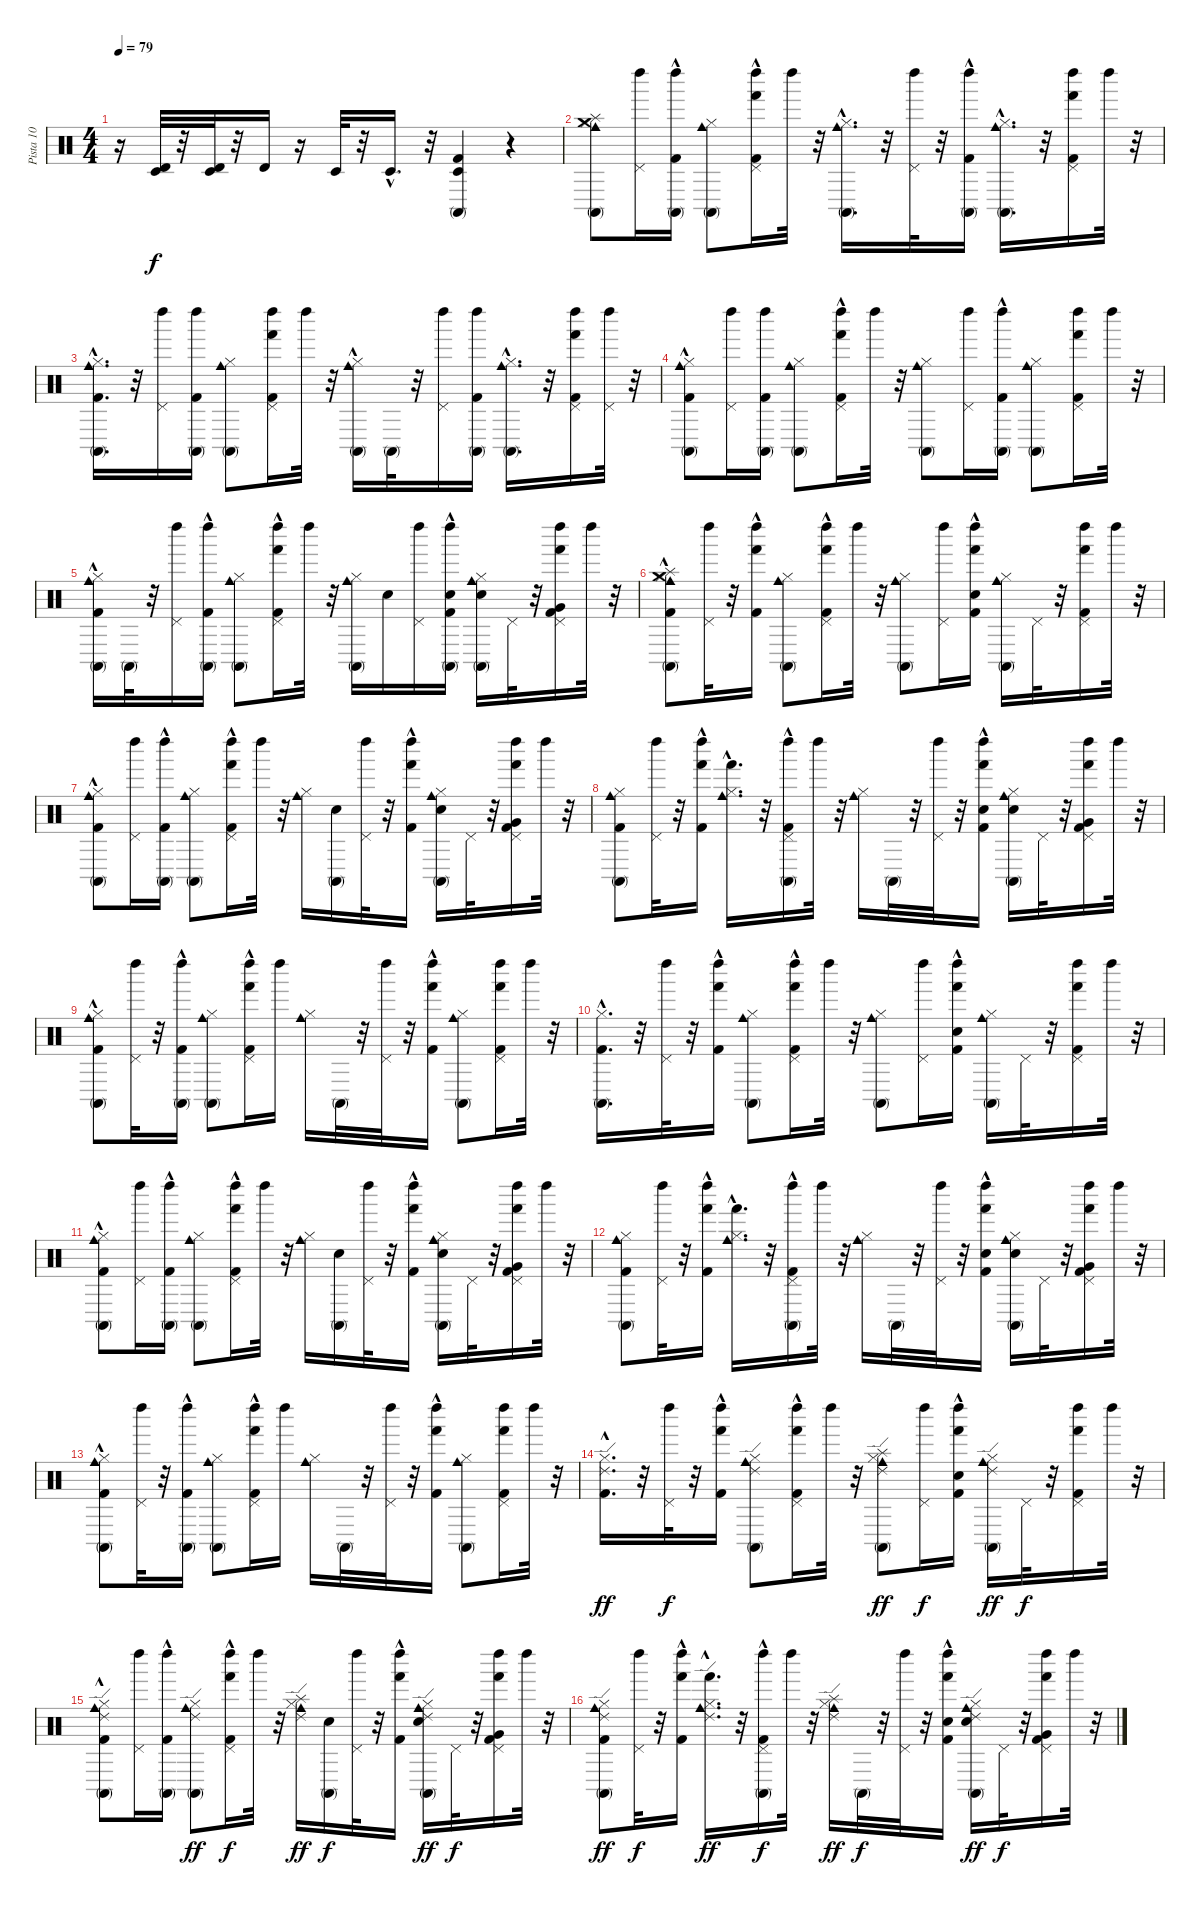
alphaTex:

\track ("Pista 10" "Pista 10") {instrument percussion}
\staff {score}
\articulation defaults
\ts (4 4)
\tempo 79
\clef neutral
\ks c
r.16{dy f} ("Timbale high (hit)" "Timbale low (hit)").32 r.32 ("Timbale high (hit)" "Timbale low (hit)").32 r.32 "Timbale high (hit)".16 r.16 "Timbale low (hit)".32 r.32 "Timbale low (hit)"{hac}.16{d} r.32 ("Kick (hit) 2" "Conga high (mute)" "Timbale low (hit)").4 r.4 |
("Hi-Hat (closed)" "Crash medium (hit)" "Splash (hit)" "Conga high (mute)" "Cowbell medium (hit)").8 ("Pedal Hi-Hat (hit)" "Left Maraca (hit)").16 ("Conga high (mute)" "Left Maraca (hit)" "Kick (hit) 2"{hac}).16 ("Hi-Hat (closed)" "Conga high (mute)" "Cowbell medium (hit)").8 ("Pedal Hi-Hat (hit)" "Hand (hit)" "Left Maraca (hit)" "Kick (hit) 2"{hac}).16 "Left Maraca (hit)".32 r.32 ("Hi-Hat (closed)" "Conga high (mute)" "Cowbell medium (hit)"{hac}).16{d} r.32 ("Pedal Hi-Hat (hit)" "Left Maraca (hit)").32 r.32 ("Conga high (mute)" "Left Maraca (hit)" "Kick (hit) 2"{hac}).16 ("Hi-Hat (closed)" "Conga high (mute)" "Cowbell medium (hit)"{hac}).16{d} r.32 ("Pedal Hi-Hat (hit)" "Hand (hit)" "Left Maraca (hit)" "Kick (hit) 2").16 "Left Maraca (hit)".32 r.32 |
("Hi-Hat (closed)" "Conga high (mute)" "Cowbell medium (hit)"{hac} "Kick (hit) 2"{hac}).16{d} r.32 ("Pedal Hi-Hat (hit)" "Left Maraca (hit)").16 ("Conga high (mute)" "Left Maraca (hit)" "Kick (hit) 2").16 ("Hi-Hat (closed)" "Conga high (mute)" "Cowbell medium (hit)").8 ("Pedal Hi-Hat (hit)" "Hand (hit)" "Left Maraca (hit)" "Kick (hit) 2").16 "Left Maraca (hit)".32 r.32 ("Hi-Hat (closed)" "Conga high (mute)" "Cowbell medium (hit)"{hac}).16 "Conga high (mute)".32 r.32 ("Pedal Hi-Hat (hit)" "Left Maraca (hit)").16 ("Conga high (mute)" "Left Maraca (hit)" "Kick (hit) 2").16 ("Hi-Hat (closed)" "Conga high (mute)" "Cowbell medium (hit)"{hac}).16{d} r.32 ("Pedal Hi-Hat (hit)" "Hand (hit)" "Left Maraca (hit)" "Kick (hit) 2").16 ("Pedal Hi-Hat (hit)" "Left Maraca (hit)").32 r.32 |
("Hi-Hat (closed)" "Conga high (mute)" "Cowbell medium (hit)" "Kick (hit) 2"{hac}).8 ("Pedal Hi-Hat (hit)" "Left Maraca (hit)").16 ("Conga high (mute)" "Left Maraca (hit)" "Kick (hit) 2").16 ("Hi-Hat (closed)" "Conga high (mute)" "Cowbell medium (hit)").8 ("Pedal Hi-Hat (hit)" "Hand (hit)" "Left Maraca (hit)" "Kick (hit) 2"{hac}).16 "Left Maraca (hit)".32 r.32 ("Hi-Hat (closed)" "Conga high (mute)" "Cowbell medium (hit)").8 ("Pedal Hi-Hat (hit)" "Left Maraca (hit)").16 ("Conga high (mute)" "Left Maraca (hit)" "Kick (hit) 2"{hac}).16 ("Hi-Hat (closed)" "Conga high (mute)" "Cowbell medium (hit)").8 ("Pedal Hi-Hat (hit)" "Hand (hit)" "Left Maraca (hit)" "Kick (hit) 2").16 "Left Maraca (hit)".32 r.32 |
("Hi-Hat (closed)" "Conga high (mute)" "Cowbell medium (hit)" "Kick (hit) 2"{hac}).16 "Conga high (mute)".32 r.32 ("Pedal Hi-Hat (hit)" "Left Maraca (hit)").16 ("Conga high (mute)" "Left Maraca (hit)" "Kick (hit) 2"{hac}).16 ("Hi-Hat (closed)" "Conga high (mute)" "Cowbell medium (hit)").8 ("Pedal Hi-Hat (hit)" "Hand (hit)" "Left Maraca (hit)" "Kick (hit) 2"{hac}).16 "Left Maraca (hit)".32 r.32 ("Hi-Hat (closed)" "Conga high (mute)" "Cowbell medium (hit)").16 "Snare (hit) 2".16 ("Pedal Hi-Hat (hit)" "Left Maraca (hit)").16 ("Snare (hit) 2" "Conga high (mute)" "Left Maraca (hit)" "Kick (hit) 2"{hac}).16 ("Hi-Hat (closed)" "Snare (hit) 2" "Conga high (mute)" "Cowbell medium (hit)").16 "Pedal Hi-Hat (hit)".32 r.32 ("Pedal Hi-Hat (hit)" "Very Low Tom (hit)" "Hand (hit)" "Left Maraca (hit)" "Kick (hit) 2").16 "Left Maraca (hit)".32 r.32 |
("Splash (hit)" "Hi-Hat (closed)"{hac} "Conga high (mute)" "Cowbell medium (hit)" "Kick (hit) 2"{hac} "Crash medium (hit)").8 ("Pedal Hi-Hat (hit)" "Left Maraca (hit)").32 r.32 ("Hand (hit)" "Left Maraca (hit)" "Kick (hit) 2"{hac}).16 ("Hi-Hat (closed)" "Conga high (mute)" "Cowbell medium (hit)").8 ("Pedal Hi-Hat (hit)" "Hand (hit)" "Left Maraca (hit)" "Kick (hit) 2"{hac}).16 "Left Maraca (hit)".32 r.32 ("Hi-Hat (closed)" "Conga high (mute)" "Cowbell medium (hit)").8 ("Pedal Hi-Hat (hit)" "Left Maraca (hit)").16 ("Snare (hit) 2" "Hand (hit)" "Left Maraca (hit)" "Kick (hit) 2"{hac}).16 ("Hi-Hat (closed)" "Conga high (mute)" "Cowbell medium (hit)").16 "Pedal Hi-Hat (hit)".32 r.32 ("Pedal Hi-Hat (hit)" "Hand (hit)" "Left Maraca (hit)" "Kick (hit) 2").16 "Left Maraca (hit)".32 r.32 |
("Hi-Hat (closed)" "Conga high (mute)" "Cowbell medium (hit)" "Kick (hit) 2"{hac}).8 ("Pedal Hi-Hat (hit)" "Left Maraca (hit)").16 ("Conga high (mute)" "Left Maraca (hit)" "Kick (hit) 2"{hac}).16 ("Hi-Hat (closed)" "Conga high (mute)" "Cowbell medium (hit)").8 ("Pedal Hi-Hat (hit)" "Hand (hit)" "Left Maraca (hit)" "Kick (hit) 2"{hac}).16 "Left Maraca (hit)".32 r.32 ("Hi-Hat (closed)" "Cowbell medium (hit)").16 ("Snare (hit) 2" "Conga high (mute)").16 ("Pedal Hi-Hat (hit)" "Left Maraca (hit)").32 r.32 ("Hand (hit)" "Left Maraca (hit)" "Kick (hit) 2"{hac}).16 ("Hi-Hat (closed)" "Snare (hit) 2" "Conga high (mute)" "Cowbell medium (hit)").16 "Pedal Hi-Hat (hit)".32 r.32 ("Pedal Hi-Hat (hit)" "Very Low Tom (hit)" "Hand (hit)" "Left Maraca (hit)" "Kick (hit) 2").16 "Left Maraca (hit)".32 r.32 |
("Hi-Hat (closed)" "Conga high (mute)" "Cowbell medium (hit)" "Kick (hit) 2").8 ("Pedal Hi-Hat (hit)" "Left Maraca (hit)").32 r.32 ("Hand (hit)" "Left Maraca (hit)" "Kick (hit) 2"{hac}).16 ("Hi-Hat (closed)" "Hand (hit)" "Cowbell medium (hit)"{hac}).16{d} r.32 ("Pedal Hi-Hat (hit)" "Conga high (mute)" "Left Maraca (hit)" "Kick (hit) 2"{hac}).16 "Left Maraca (hit)".32 r.32 ("Hi-Hat (closed)" "Cowbell medium (hit)").16 "Conga high (mute)".32 r.32 ("Pedal Hi-Hat (hit)" "Left Maraca (hit)").32 r.32 ("Snare (hit) 2" "Hand (hit)" "Left Maraca (hit)" "Kick (hit) 2"{hac}).16 ("Hi-Hat (closed)" "Snare (hit) 2" "Conga high (mute)" "Cowbell medium (hit)").16 "Pedal Hi-Hat (hit)".32 r.32 ("Pedal Hi-Hat (hit)" "Very Low Tom (hit)" "Hand (hit)" "Left Maraca (hit)" "Kick (hit) 2").16 "Left Maraca (hit)".32 r.32 |
("Hi-Hat (closed)" "Conga high (mute)" "Cowbell medium (hit)" "Kick (hit) 2"{hac}).8 ("Pedal Hi-Hat (hit)" "Left Maraca (hit)").32 r.32 ("Conga high (mute)" "Left Maraca (hit)" "Kick (hit) 2"{hac}).16 ("Hi-Hat (closed)" "Conga high (mute)" "Cowbell medium (hit)").8 ("Pedal Hi-Hat (hit)" "Hand (hit)" "Left Maraca (hit)" "Kick (hit) 2"{hac}).16 "Left Maraca (hit)".16 ("Hi-Hat (closed)" "Cowbell medium (hit)").16 "Conga high (mute)".32 r.32 ("Pedal Hi-Hat (hit)" "Left Maraca (hit)").32 r.32 ("Hand (hit)" "Left Maraca (hit)" "Kick (hit) 2"{hac}).16 ("Hi-Hat (closed)" "Conga high (mute)" "Cowbell medium (hit)").8 ("Pedal Hi-Hat (hit)" "Hand (hit)" "Left Maraca (hit)" "Kick (hit) 2").16 "Left Maraca (hit)".32 r.32 |
("Kick (hit) 2"{hac} "Hi-Hat (closed)"{hac} "Conga high (mute)").16{d} r.32 ("Left Maraca (hit)" "Pedal Hi-Hat (hit)").32 r.32 ("Left Maraca (hit)" "Kick (hit) 2"{hac} "Hand (hit)").16 ("Cowbell medium (hit)" "Hi-Hat (closed)" "Conga high (mute)").8 ("Left Maraca (hit)" "Kick (hit) 2"{hac} "Pedal Hi-Hat (hit)" "Hand (hit)").16 "Left Maraca (hit)".32 r.32 ("Cowbell medium (hit)" "Hi-Hat (closed)" "Conga high (mute)").8 ("Left Maraca (hit)" "Pedal Hi-Hat (hit)").16 ("Left Maraca (hit)" "Kick (hit) 2"{hac} "Hand (hit)" "Snare (hit) 2").16 ("Cowbell medium (hit)" "Hi-Hat (closed)" "Conga high (mute)").16 "Pedal Hi-Hat (hit)".32 r.32 ("Left Maraca (hit)" "Kick (hit) 2" "Pedal Hi-Hat (hit)" "Hand (hit)").16 "Left Maraca (hit)".32 r.32 |
("Cowbell medium (hit)" "Kick (hit) 2"{hac} "Hi-Hat (closed)" "Conga high (mute)").8 ("Left Maraca (hit)" "Pedal Hi-Hat (hit)").16 ("Left Maraca (hit)" "Kick (hit) 2"{hac} "Conga high (mute)").16 ("Cowbell medium (hit)" "Hi-Hat (closed)" "Conga high (mute)").8 ("Left Maraca (hit)" "Kick (hit) 2"{hac} "Pedal Hi-Hat (hit)" "Hand (hit)").16 "Left Maraca (hit)".32 r.32 ("Cowbell medium (hit)" "Hi-Hat (closed)").16 ("Conga high (mute)" "Snare (hit) 2").16 ("Left Maraca (hit)" "Pedal Hi-Hat (hit)").32 r.32 ("Left Maraca (hit)" "Kick (hit) 2"{hac} "Hand (hit)").16 ("Cowbell medium (hit)" "Hi-Hat (closed)" "Conga high (mute)" "Snare (hit) 2").16 "Pedal Hi-Hat (hit)".32 r.32 ("Left Maraca (hit)" "Kick (hit) 2" "Pedal Hi-Hat (hit)" "Hand (hit)" "Very Low Tom (hit)").16 "Left Maraca (hit)".32 r.32 |
("Cowbell medium (hit)" "Kick (hit) 2" "Hi-Hat (closed)" "Conga high (mute)").8 ("Left Maraca (hit)" "Pedal Hi-Hat (hit)").32 r.32 ("Left Maraca (hit)" "Kick (hit) 2"{hac} "Hand (hit)").16 ("Cowbell medium (hit)"{hac} "Hi-Hat (closed)" "Hand (hit)").16{d} r.32 ("Left Maraca (hit)" "Kick (hit) 2"{hac} "Pedal Hi-Hat (hit)" "Conga high (mute)").16 "Left Maraca (hit)".32 r.32 ("Cowbell medium (hit)" "Hi-Hat (closed)").16 "Conga high (mute)".32 r.32 ("Left Maraca (hit)" "Pedal Hi-Hat (hit)").32 r.32 ("Left Maraca (hit)" "Kick (hit) 2"{hac} "Hand (hit)" "Snare (hit) 2").16 ("Cowbell medium (hit)" "Hi-Hat (closed)" "Conga high (mute)" "Snare (hit) 2").16 "Pedal Hi-Hat (hit)".32 r.32 ("Left Maraca (hit)" "Kick (hit) 2" "Pedal Hi-Hat (hit)" "Hand (hit)" "Very Low Tom (hit)").16 "Left Maraca (hit)".32 r.32 |
("Cowbell medium (hit)" "Kick (hit) 2"{hac} "Hi-Hat (closed)" "Conga high (mute)").8 ("Left Maraca (hit)" "Pedal Hi-Hat (hit)").32 r.32 ("Left Maraca (hit)" "Kick (hit) 2"{hac} "Conga high (mute)").16 ("Cowbell medium (hit)" "Hi-Hat (closed)" "Conga high (mute)").8 ("Left Maraca (hit)" "Kick (hit) 2"{hac} "Pedal Hi-Hat (hit)" "Hand (hit)").16 "Left Maraca (hit)".16 ("Cowbell medium (hit)" "Hi-Hat (closed)").16 "Conga high (mute)".32 r.32 ("Left Maraca (hit)" "Pedal Hi-Hat (hit)").32 r.32 ("Left Maraca (hit)" "Kick (hit) 2"{hac} "Hand (hit)").16 ("Cowbell medium (hit)" "Hi-Hat (closed)" "Conga high (mute)").8 ("Left Maraca (hit)" "Kick (hit) 2" "Pedal Hi-Hat (hit)" "Hand (hit)").16 "Left Maraca (hit)".32 r.32 |
("Ride (edge) 2" "Kick (hit) 2"{hac} "Hi-Hat (closed)"{hac}).16{d dy ff} r.32 ("Left Maraca (hit)" "Pedal Hi-Hat (hit)").32{dy f} r.32 ("Left Maraca (hit)" "Kick (hit) 2"{hac} "Hand (hit)").16 ("Ride (edge) 2" "Cowbell medium (hit)" "Hi-Hat (closed)" "Conga high (mute)").8 ("Left Maraca (hit)" "Kick (hit) 2"{hac} "Pedal Hi-Hat (hit)" "Hand (hit)").16 "Left Maraca (hit)".32 r.32 ("Ride (edge) 2" "Cowbell medium (hit)" "Hi-Hat (closed)" "Conga high (mute)" "Splash (hit)").8{dy ff} ("Left Maraca (hit)" "Pedal Hi-Hat (hit)").16{dy f} ("Left Maraca (hit)" "Kick (hit) 2"{hac} "Hand (hit)" "Snare (hit) 2").16 ("Ride (edge) 2" "Cowbell medium (hit)" "Hi-Hat (closed)" "Conga high (mute)").16{dy ff} "Pedal Hi-Hat (hit)".32{dy f} r.32 ("Left Maraca (hit)" "Kick (hit) 2" "Pedal Hi-Hat (hit)" "Hand (hit)").16 "Left Maraca (hit)".32 r.32 |
("Ride (edge) 2" "Cowbell medium (hit)" "Kick (hit) 2"{hac} "Hi-Hat (closed)" "Conga high (mute)").8 ("Left Maraca (hit)" "Pedal Hi-Hat (hit)").16 ("Left Maraca (hit)" "Kick (hit) 2"{hac} "Conga high (mute)").16 ("Ride (edge) 2" "Cowbell medium (hit)" "Hi-Hat (closed)" "Conga high (mute)").8{dy ff} ("Left Maraca (hit)" "Kick (hit) 2"{hac} "Pedal Hi-Hat (hit)" "Hand (hit)").16{dy f} "Left Maraca (hit)".32 r.32 ("Ride (edge) 2" "Cowbell medium (hit)" "Hi-Hat (closed)" "Splash (hit)").16{dy ff} ("Conga high (mute)" "Snare (hit) 2").16{dy f} ("Left Maraca (hit)" "Pedal Hi-Hat (hit)").32 r.32 ("Left Maraca (hit)" "Kick (hit) 2"{hac} "Hand (hit)").16 ("Ride (edge) 2" "Cowbell medium (hit)" "Hi-Hat (closed)" "Conga high (mute)" "Snare (hit) 2").16{dy ff} "Pedal Hi-Hat (hit)".32{dy f} r.32 ("Left Maraca (hit)" "Kick (hit) 2" "Pedal Hi-Hat (hit)" "Hand (hit)" "Very Low Tom (hit)").16 "Left Maraca (hit)".32 r.32 |
("Ride (edge) 2" "Cowbell medium (hit)" "Kick (hit) 2" "Hi-Hat (closed)" "Conga high (mute)").8{dy ff} ("Left Maraca (hit)" "Pedal Hi-Hat (hit)").32{dy f} r.32 ("Left Maraca (hit)" "Kick (hit) 2"{hac} "Hand (hit)").16 ("Ride (edge) 2" "Cowbell medium (hit)"{hac} "Hi-Hat (closed)" "Hand (hit)").16{d dy ff} r.32 ("Left Maraca (hit)" "Kick (hit) 2"{hac} "Pedal Hi-Hat (hit)" "Conga high (mute)").16{dy f} "Left Maraca (hit)".32 r.32 ("Ride (edge) 2" "Cowbell medium (hit)" "Hi-Hat (closed)" "Splash (hit)").16{dy ff} "Conga high (mute)".32{dy f} r.32 ("Left Maraca (hit)" "Pedal Hi-Hat (hit)").32 r.32 ("Left Maraca (hit)" "Kick (hit) 2"{hac} "Hand (hit)" "Snare (hit) 2").16 ("Ride (edge) 2" "Cowbell medium (hit)" "Hi-Hat (closed)" "Conga high (mute)" "Snare (hit) 2").16{dy ff} "Pedal Hi-Hat (hit)".32{dy f} r.32 ("Left Maraca (hit)" "Kick (hit) 2" "Pedal Hi-Hat (hit)" "Hand (hit)" "Very Low Tom (hit)").16 "Left Maraca (hit)".32 r.32
